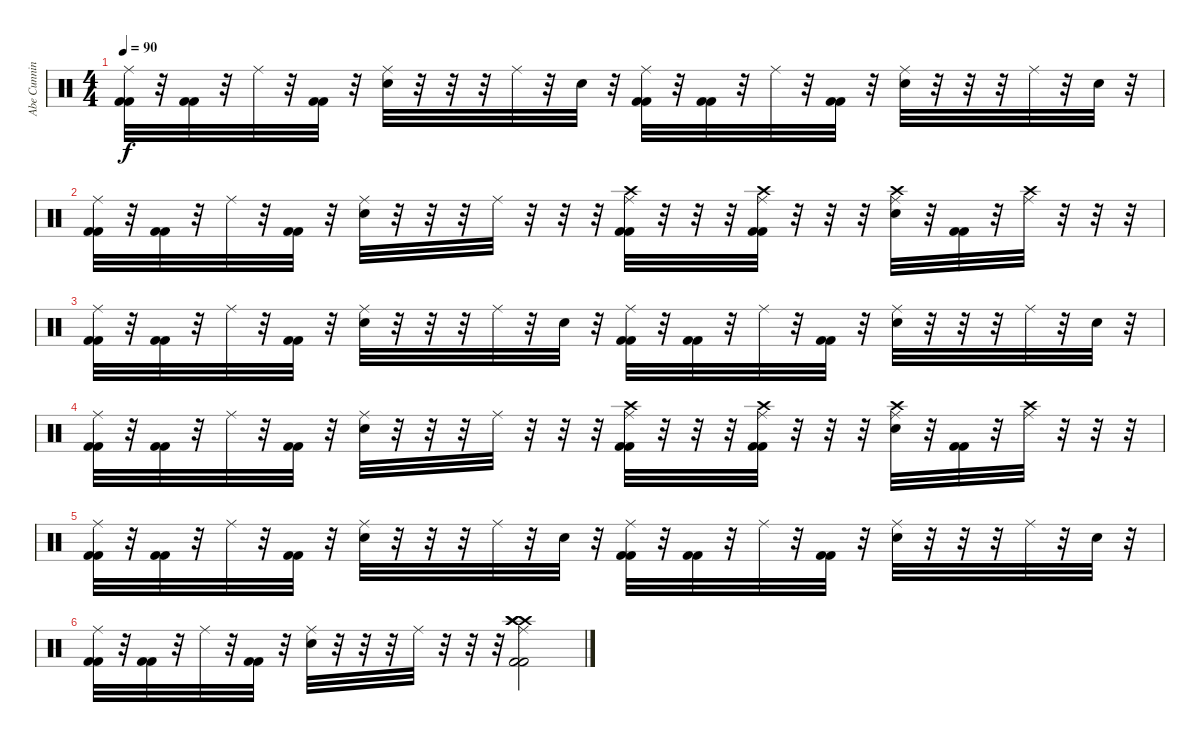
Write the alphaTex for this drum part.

\track ("Abe Cunningham - Drums" "Abe Cunnin") {instrument percussion}
\staff {score}
\articulation defaults
\ts (4 4)
\tempo 90
\clef neutral
\ks c
("Ride (middle)" "Kick (hit) 2" "Kick (hit) 2").32{dy f} r.32 ("Kick (hit) 2" "Kick (hit) 2").32 r.32 "Ride (middle)".32 r.32 ("Kick (hit) 2" "Kick (hit) 2").32 r.32 ("Ride (middle)" "Electric Snare (hit)").32 r.32 r.32 r.32 "Ride (middle)".32 r.32 "Electric Snare (hit)".32 r.32 ("Ride (middle)" "Kick (hit) 2" "Kick (hit) 2").32 r.32 ("Kick (hit) 2" "Kick (hit) 2").32 r.32 "Ride (middle)".32 r.32 ("Kick (hit) 2" "Kick (hit) 2").32 r.32 ("Ride (middle)" "Electric Snare (hit)").32 r.32 r.32 r.32 "Ride (middle)".32 r.32 "Electric Snare (hit)".32 r.32 |
("Ride (middle)" "Kick (hit) 2" "Kick (hit) 2").32 r.32 ("Kick (hit) 2" "Kick (hit) 2").32 r.32 "Ride (middle)".32 r.32 ("Kick (hit) 2" "Kick (hit) 2").32 r.32 ("Ride (middle)" "Electric Snare (hit)").32 r.32 r.32 r.32 "Ride (middle)".32 r.32 r.32 r.32 ("Crash high (hit)" "Ride (middle)" "Kick (hit) 2" "Kick (hit) 2").32 r.32 r.32 r.32 ("Crash high (hit)" "Ride (middle)" "Kick (hit) 2" "Kick (hit) 2").32 r.32 r.32 r.32 ("Crash high (hit)" "Ride (middle)" "Electric Snare (hit)").32 r.32 ("Kick (hit) 2" "Kick (hit) 2").32 r.32 ("Crash high (hit)" "Ride (middle)").32 r.32 r.32 r.32 |
("Ride (middle)" "Kick (hit) 2" "Kick (hit) 2").32 r.32 ("Kick (hit) 2" "Kick (hit) 2").32 r.32 "Ride (middle)".32 r.32 ("Kick (hit) 2" "Kick (hit) 2").32 r.32 ("Ride (middle)" "Electric Snare (hit)").32 r.32 r.32 r.32 "Ride (middle)".32 r.32 "Electric Snare (hit)".32 r.32 ("Ride (middle)" "Kick (hit) 2" "Kick (hit) 2").32 r.32 ("Kick (hit) 2" "Kick (hit) 2").32 r.32 "Ride (middle)".32 r.32 ("Kick (hit) 2" "Kick (hit) 2").32 r.32 ("Ride (middle)" "Electric Snare (hit)").32 r.32 r.32 r.32 "Ride (middle)".32 r.32 "Electric Snare (hit)".32 r.32 |
("Ride (middle)" "Kick (hit) 2" "Kick (hit) 2").32 r.32 ("Kick (hit) 2" "Kick (hit) 2").32 r.32 "Ride (middle)".32 r.32 ("Kick (hit) 2" "Kick (hit) 2").32 r.32 ("Ride (middle)" "Electric Snare (hit)").32 r.32 r.32 r.32 "Ride (middle)".32 r.32 r.32 r.32 ("Crash high (hit)" "Ride (middle)" "Kick (hit) 2" "Kick (hit) 2").32 r.32 r.32 r.32 ("Crash high (hit)" "Ride (middle)" "Kick (hit) 2" "Kick (hit) 2").32 r.32 r.32 r.32 ("Crash high (hit)" "Ride (middle)" "Electric Snare (hit)").32 r.32 ("Kick (hit) 2" "Kick (hit) 2").32 r.32 ("Crash high (hit)" "Ride (middle)").32 r.32 r.32 r.32 |
("Ride (middle)" "Kick (hit) 2" "Kick (hit) 2").32 r.32 ("Kick (hit) 2" "Kick (hit) 2").32 r.32 "Ride (middle)".32 r.32 ("Kick (hit) 2" "Kick (hit) 2").32 r.32 ("Ride (middle)" "Electric Snare (hit)").32 r.32 r.32 r.32 "Ride (middle)".32 r.32 "Electric Snare (hit)".32 r.32 ("Ride (middle)" "Kick (hit) 2" "Kick (hit) 2").32 r.32 ("Kick (hit) 2" "Kick (hit) 2").32 r.32 "Ride (middle)".32 r.32 ("Kick (hit) 2" "Kick (hit) 2").32 r.32 ("Ride (middle)" "Electric Snare (hit)").32 r.32 r.32 r.32 "Ride (middle)".32 r.32 "Electric Snare (hit)".32 r.32 |
("Ride (middle)" "Kick (hit) 2" "Kick (hit) 2").32 r.32 ("Kick (hit) 2" "Kick (hit) 2").32 r.32 "Ride (middle)".32 r.32 ("Kick (hit) 2" "Kick (hit) 2").32 r.32 ("Ride (middle)" "Electric Snare (hit)").32 r.32 r.32 r.32 "Ride (middle)".32 r.32 r.32 r.32 ("Crash high (hit)" "Crash high (hit)" "Crash high (hit)" "Ride (middle)" "Kick (hit) 2" "Kick (hit) 2").2
